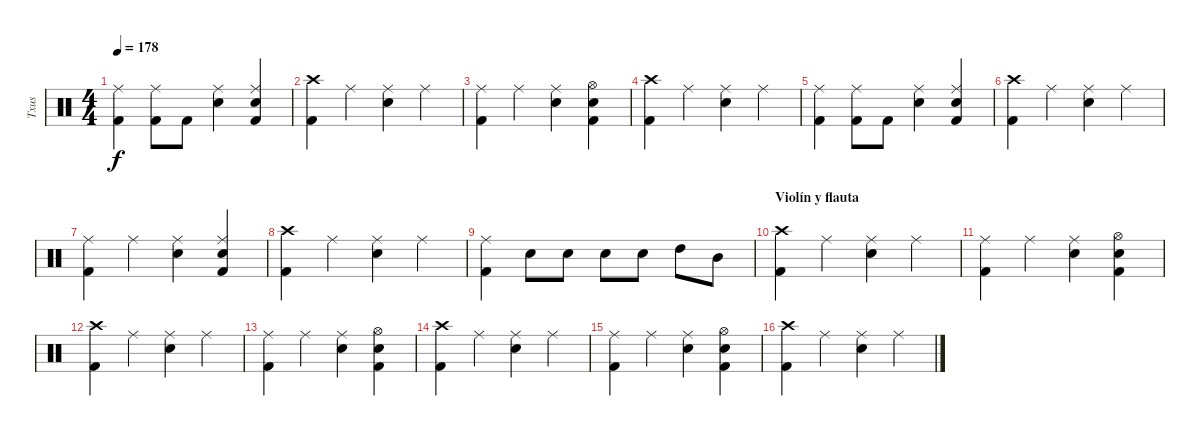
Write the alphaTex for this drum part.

\track ("Txus" "Txus") {instrument percussion}
\staff {score}
\articulation defaults
\ts (4 4)
\tempo 178
\clef neutral
\ks c
("Kick (hit) 2" "Ride (middle)").4{dy f} ("Kick (hit) 2" "Ride (middle)").8 "Kick (hit) 2".8 ("Ride (middle)" "Electric Snare (hit)").4 ("Kick (hit) 2" "Electric Snare (hit)" "Ride (middle)").4 |
("Kick (hit) 2" "Crash high (hit)").4 "Ride (middle)".4 ("Ride (middle)" "Electric Snare (hit)").4 "Ride (middle)".4 |
("Kick (hit) 2" "Ride (middle)").4 "Ride (middle)".4 ("Ride (middle)" "Electric Snare (hit)").4 ("Kick (hit) 2" "Hi-Hat (open)" "Electric Snare (hit)").4 |
("Kick (hit) 2" "Crash high (hit)").4 "Ride (middle)".4 ("Ride (middle)" "Electric Snare (hit)").4 "Ride (middle)".4 |
("Kick (hit) 2" "Ride (middle)").4 ("Kick (hit) 2" "Ride (middle)").8 "Kick (hit) 2".8 ("Ride (middle)" "Electric Snare (hit)").4 ("Kick (hit) 2" "Electric Snare (hit)" "Ride (middle)").4 |
("Kick (hit) 2" "Crash high (hit)").4 "Ride (middle)".4 ("Ride (middle)" "Electric Snare (hit)").4 "Ride (middle)".4 |
("Kick (hit) 2" "Ride (middle)").4 "Ride (middle)".4 ("Ride (middle)" "Electric Snare (hit)").4 ("Kick (hit) 2" "Ride (middle)" "Electric Snare (hit)").4 |
("Kick (hit) 2" "Crash high (hit)").4 "Ride (middle)".4 ("Ride (middle)" "Electric Snare (hit)").4 "Ride (middle)".4 |
("Kick (hit) 2" "Ride (middle)").4 "Electric Snare (hit)".8 "Electric Snare (hit)".8 "Electric Snare (hit)".8 "Electric Snare (hit)".8 "High Tom (hit)".8 "Mid Tom (hit)".8 |
\section ("" "Violín y flauta")
("Kick (hit) 2" "Crash high (hit)").4 "Ride (middle)".4 ("Ride (middle)" "Electric Snare (hit)").4 "Ride (middle)".4 |
("Kick (hit) 2" "Ride (middle)").4 "Ride (middle)".4 ("Ride (middle)" "Electric Snare (hit)").4 ("Kick (hit) 2" "Hi-Hat (open)" "Electric Snare (hit)").4 |
("Kick (hit) 2" "Crash high (hit)").4 "Ride (middle)".4 ("Ride (middle)" "Electric Snare (hit)").4 "Ride (middle)".4 |
("Kick (hit) 2" "Ride (middle)").4 "Ride (middle)".4 ("Ride (middle)" "Electric Snare (hit)").4 ("Kick (hit) 2" "Hi-Hat (open)" "Electric Snare (hit)").4 |
("Kick (hit) 2" "Crash high (hit)").4 "Ride (middle)".4 ("Ride (middle)" "Electric Snare (hit)").4 "Ride (middle)".4 |
("Kick (hit) 2" "Ride (middle)").4 "Ride (middle)".4 ("Ride (middle)" "Electric Snare (hit)").4 ("Kick (hit) 2" "Hi-Hat (open)" "Electric Snare (hit)").4 |
("Kick (hit) 2" "Crash high (hit)").4 "Ride (middle)".4 ("Ride (middle)" "Electric Snare (hit)").4 "Ride (middle)".4
